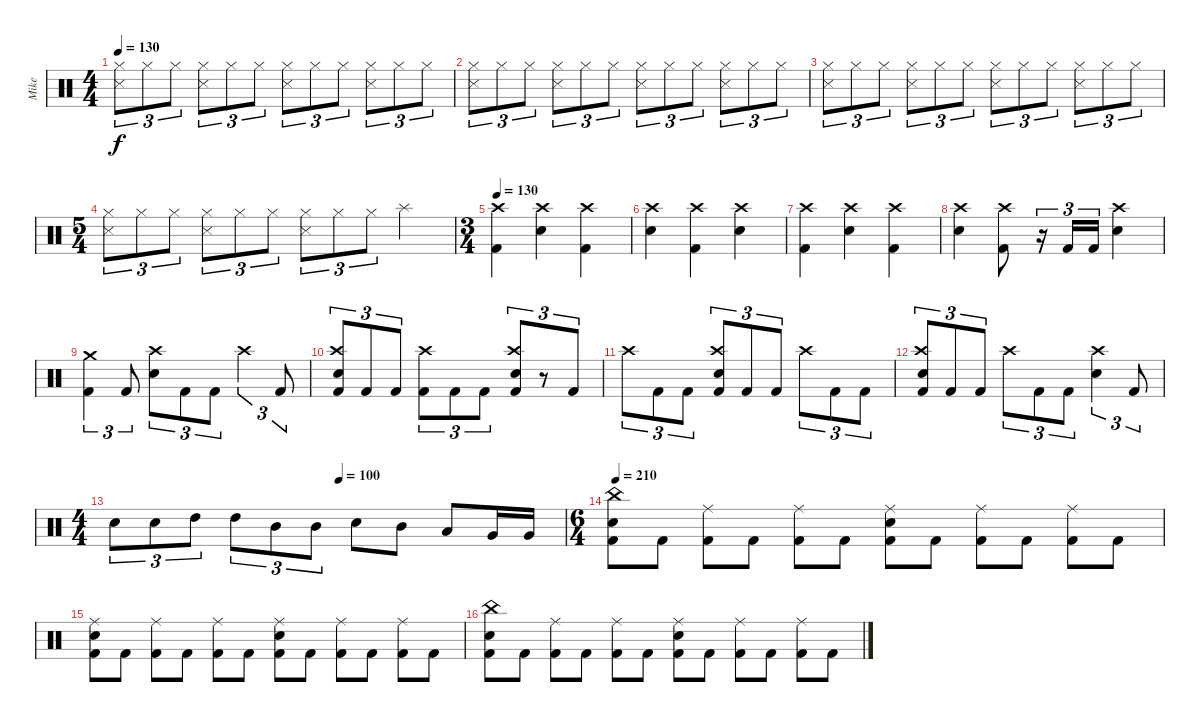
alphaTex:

\track ("Mike" "Mike") {instrument percussion}
\staff {score}
\articulation defaults
\ts (4 4)
\tempo 130
\clef neutral
\ks c
("Snare (side stick) 3" "Hi-Hat (closed)").8{tu (3 2) dy f} "Hi-Hat (closed)".8{tu (3 2)} "Hi-Hat (closed)".8{tu (3 2)} ("Snare (side stick) 3" "Hi-Hat (closed)").8{tu (3 2)} "Hi-Hat (closed)".8{tu (3 2)} "Hi-Hat (closed)".8{tu (3 2)} ("Snare (side stick) 3" "Hi-Hat (closed)").8{tu (3 2)} "Hi-Hat (closed)".8{tu (3 2)} "Hi-Hat (closed)".8{tu (3 2)} ("Snare (side stick) 3" "Hi-Hat (closed)").8{tu (3 2)} "Hi-Hat (closed)".8{tu (3 2)} "Hi-Hat (closed)".8{tu (3 2)} |
("Snare (side stick) 3" "Hi-Hat (closed)").8{tu (3 2)} "Hi-Hat (closed)".8{tu (3 2)} "Hi-Hat (closed)".8{tu (3 2)} ("Snare (side stick) 3" "Hi-Hat (closed)").8{tu (3 2)} "Hi-Hat (closed)".8{tu (3 2)} "Hi-Hat (closed)".8{tu (3 2)} ("Snare (side stick) 3" "Hi-Hat (closed)").8{tu (3 2)} "Hi-Hat (closed)".8{tu (3 2)} "Hi-Hat (closed)".8{tu (3 2)} ("Snare (side stick) 3" "Hi-Hat (closed)").8{tu (3 2)} "Hi-Hat (closed)".8{tu (3 2)} "Hi-Hat (closed)".8{tu (3 2)} |
("Snare (side stick) 3" "Hi-Hat (closed)").8{tu (3 2)} "Hi-Hat (closed)".8{tu (3 2)} "Hi-Hat (closed)".8{tu (3 2)} ("Snare (side stick) 3" "Hi-Hat (closed)").8{tu (3 2)} "Hi-Hat (closed)".8{tu (3 2)} "Hi-Hat (closed)".8{tu (3 2)} ("Snare (side stick) 3" "Hi-Hat (closed)").8{tu (3 2)} "Hi-Hat (closed)".8{tu (3 2)} "Hi-Hat (closed)".8{tu (3 2)} ("Snare (side stick) 3" "Hi-Hat (closed)").8{tu (3 2)} "Hi-Hat (closed)".8{tu (3 2)} "Hi-Hat (closed)".8{tu (3 2)} |
\ts (5 4)
("Snare (side stick) 3" "Hi-Hat (closed)").8{tu (3 2)} "Hi-Hat (closed)".8{tu (3 2)} "Hi-Hat (closed)".8{tu (3 2)} ("Snare (side stick) 3" "Hi-Hat (closed)").8{tu (3 2)} "Hi-Hat (closed)".8{tu (3 2)} "Hi-Hat (closed)".8{tu (3 2)} ("Snare (side stick) 3" "Hi-Hat (closed)").8{tu (3 2)} "Hi-Hat (closed)".8{tu (3 2)} "Hi-Hat (closed)".8{tu (3 2)} "Splash (hit)".2 |
\ts (3 4)
\tempo 130
("Kick (hit) 2" "Crash high (hit)").4 ("Electric Snare (hit)" "Crash high (hit)").4 ("Kick (hit) 2" "Crash high (hit)").4 |
("Electric Snare (hit)" "Crash high (hit)").4 ("Kick (hit) 2" "Crash high (hit)").4 ("Electric Snare (hit)" "Crash high (hit)").4 |
("Kick (hit) 2" "Crash high (hit)").4 ("Electric Snare (hit)" "Crash high (hit)").4 ("Kick (hit) 2" "Crash high (hit)").4 |
("Electric Snare (hit)" "Crash high (hit)").4 ("Kick (hit) 2" "Crash high (hit)").8 r.16{tu (3 2)} "Kick (hit) 2".16{tu (3 2)} "Kick (hit) 2".16{tu (3 2)} ("Electric Snare (hit)" "Crash high (hit)").4 |
("Kick (hit) 2" "Crash medium (hit)").4{tu (3 2)} "Kick (hit) 2".8{tu (3 2)} ("Electric Snare (hit)" "Crash high (hit)").8{tu (3 2)} "Kick (hit) 2".8{tu (3 2)} "Kick (hit) 2".8{tu (3 2)} "Crash high (hit)".4{tu (3 2)} "Kick (hit) 2".8{tu (3 2)} |
("Kick (hit) 2" "Electric Snare (hit)" "Crash high (hit)").8{tu (3 2)} "Kick (hit) 2".8{tu (3 2)} "Kick (hit) 2".8{tu (3 2)} ("Kick (hit) 2" "Crash high (hit)").8{tu (3 2)} "Kick (hit) 2".8{tu (3 2)} "Kick (hit) 2".8{tu (3 2)} ("Kick (hit) 2" "Electric Snare (hit)" "Crash high (hit)").8{tu (3 2)} r.8{tu (3 2)} "Kick (hit) 2".8{tu (3 2)} |
"Crash high (hit)".8{tu (3 2)} "Kick (hit) 2".8{tu (3 2)} "Kick (hit) 2".8{tu (3 2)} ("Kick (hit) 2" "Electric Snare (hit)" "Crash high (hit)").8{tu (3 2)} "Kick (hit) 2".8{tu (3 2)} "Kick (hit) 2".8{tu (3 2)} "Crash high (hit)".8{tu (3 2)} "Kick (hit) 2".8{tu (3 2)} "Kick (hit) 2".8{tu (3 2)} |
("Kick (hit) 2" "Electric Snare (hit)" "Crash high (hit)").8{tu (3 2)} "Kick (hit) 2".8{tu (3 2)} "Kick (hit) 2".8{tu (3 2)} "Crash high (hit)".8{tu (3 2)} "Kick (hit) 2".8{tu (3 2)} "Kick (hit) 2".8{tu (3 2)} ("Electric Snare (hit)" "Crash high (hit)").4{tu (3 2)} "Kick (hit) 2".8{tu (3 2)} |
\ts (4 4)
\tempo (100 0.5)
"Electric Snare (hit)".8{tu (3 2)} "Electric Snare (hit)".8{tu (3 2)} "High Tom (hit)".8{tu (3 2)} "High Tom (hit)".8{tu (3 2)} "Mid Tom (hit)".8{tu (3 2)} "Mid Tom (hit)".8{tu (3 2)} "Electric Snare (hit)".8 "Mid Tom (hit)".8 "Low Tom (hit)".8 "Very Low Tom (hit)".16 "Very Low Tom (hit)".16 |
\ts (6 4)
\tempo 210
("Kick (hit) 2" "Electric Snare (hit)" "China (hit)").8 "Kick (hit) 2".8 ("Kick (hit) 2" "Ride (middle)").8 "Kick (hit) 2".8 ("Kick (hit) 2" "Ride (middle)").8 "Kick (hit) 2".8 ("Kick (hit) 2" "Electric Snare (hit)" "Ride (middle)").8 "Kick (hit) 2".8 ("Kick (hit) 2" "Ride (middle)").8 "Kick (hit) 2".8 ("Kick (hit) 2" "Ride (middle)").8 "Kick (hit) 2".8 |
("Kick (hit) 2" "Electric Snare (hit)" "Ride (middle)").8 "Kick (hit) 2".8 ("Kick (hit) 2" "Ride (middle)").8 "Kick (hit) 2".8 ("Kick (hit) 2" "Ride (middle)").8 "Kick (hit) 2".8 ("Kick (hit) 2" "Electric Snare (hit)" "Ride (middle)").8 "Kick (hit) 2".8 ("Kick (hit) 2" "Ride (middle)").8 "Kick (hit) 2".8 ("Kick (hit) 2" "Ride (middle)").8 "Kick (hit) 2".8 |
("Kick (hit) 2" "Electric Snare (hit)" "China (hit)").8 "Kick (hit) 2".8 ("Kick (hit) 2" "Ride (middle)").8 "Kick (hit) 2".8 ("Kick (hit) 2" "Ride (middle)").8 "Kick (hit) 2".8 ("Kick (hit) 2" "Electric Snare (hit)" "Ride (middle)").8 "Kick (hit) 2".8 ("Kick (hit) 2" "Ride (middle)").8 "Kick (hit) 2".8 ("Kick (hit) 2" "Ride (middle)").8 "Kick (hit) 2".8
